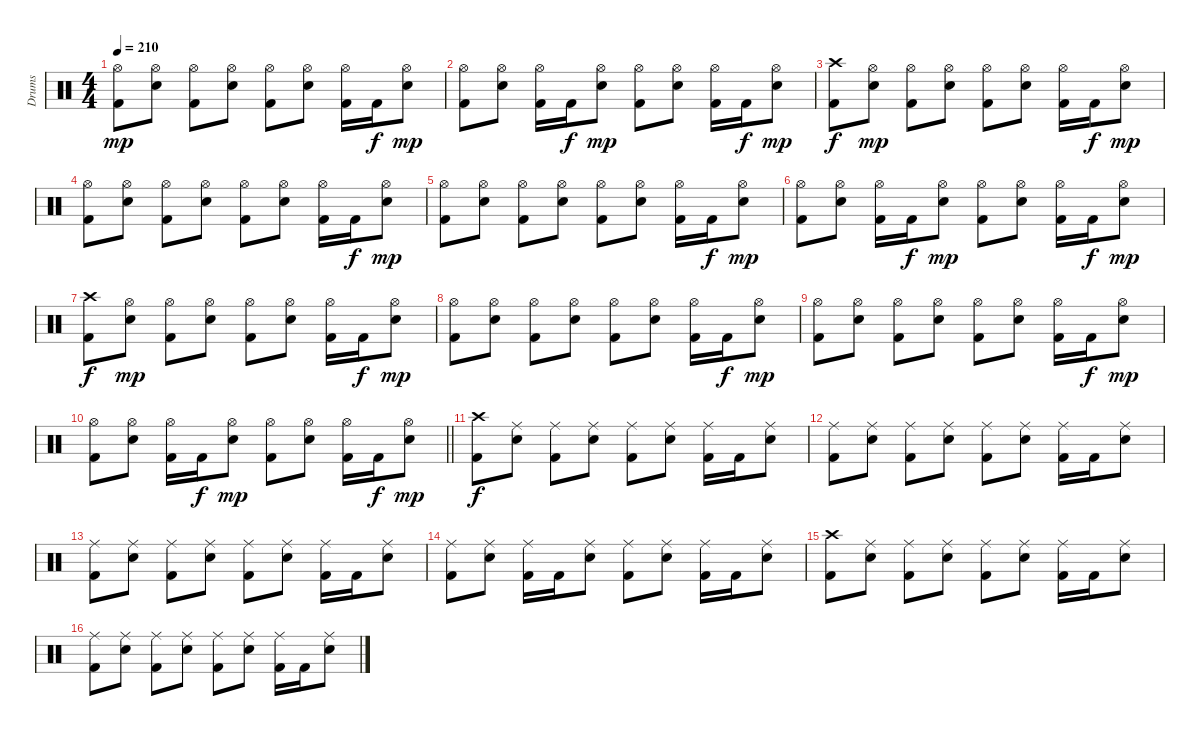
\track ("Drums" "Drums") {instrument percussion}
\staff {score}
\articulation defaults
\ts (4 4)
\tempo 210
\clef neutral
\ks c
("Hi-Hat (open)" "Kick (hit) 2").8{dy mp} ("Hi-Hat (open)" "Snare (hit) 2").8 ("Hi-Hat (open)" "Kick (hit) 2").8 ("Hi-Hat (open)" "Snare (hit) 2").8 ("Hi-Hat (open)" "Kick (hit) 2").8 ("Hi-Hat (open)" "Snare (hit) 2").8 ("Hi-Hat (open)" "Kick (hit) 2").16 "Kick (hit) 2".16{dy f} ("Hi-Hat (open)" "Snare (hit) 2").8{dy mp} |
("Hi-Hat (open)" "Kick (hit) 2").8 ("Hi-Hat (open)" "Snare (hit) 2").8 ("Hi-Hat (open)" "Kick (hit) 2").16 "Kick (hit) 2".16{dy f} ("Hi-Hat (open)" "Snare (hit) 2").8{dy mp} ("Hi-Hat (open)" "Kick (hit) 2").8 ("Hi-Hat (open)" "Snare (hit) 2").8 ("Hi-Hat (open)" "Kick (hit) 2").16 "Kick (hit) 2".16{dy f} ("Hi-Hat (open)" "Snare (hit) 2").8{dy mp} |
("Crash high (hit)" "Kick (hit) 2").8{dy f} ("Hi-Hat (open)" "Snare (hit) 2").8{dy mp} ("Hi-Hat (open)" "Kick (hit) 2").8 ("Hi-Hat (open)" "Snare (hit) 2").8 ("Hi-Hat (open)" "Kick (hit) 2").8 ("Hi-Hat (open)" "Snare (hit) 2").8 ("Hi-Hat (open)" "Kick (hit) 2").16 "Kick (hit) 2".16{dy f} ("Hi-Hat (open)" "Snare (hit) 2").8{dy mp} |
("Hi-Hat (open)" "Kick (hit) 2").8 ("Hi-Hat (open)" "Snare (hit) 2").8 ("Hi-Hat (open)" "Kick (hit) 2").8 ("Hi-Hat (open)" "Snare (hit) 2").8 ("Hi-Hat (open)" "Kick (hit) 2").8 ("Hi-Hat (open)" "Snare (hit) 2").8 ("Hi-Hat (open)" "Kick (hit) 2").16 "Kick (hit) 2".16{dy f} ("Hi-Hat (open)" "Snare (hit) 2").8{dy mp} |
("Hi-Hat (open)" "Kick (hit) 2").8 ("Hi-Hat (open)" "Snare (hit) 2").8 ("Hi-Hat (open)" "Kick (hit) 2").8 ("Hi-Hat (open)" "Snare (hit) 2").8 ("Hi-Hat (open)" "Kick (hit) 2").8 ("Hi-Hat (open)" "Snare (hit) 2").8 ("Hi-Hat (open)" "Kick (hit) 2").16 "Kick (hit) 2".16{dy f} ("Hi-Hat (open)" "Snare (hit) 2").8{dy mp} |
("Hi-Hat (open)" "Kick (hit) 2").8 ("Hi-Hat (open)" "Snare (hit) 2").8 ("Hi-Hat (open)" "Kick (hit) 2").16 "Kick (hit) 2".16{dy f} ("Hi-Hat (open)" "Snare (hit) 2").8{dy mp} ("Hi-Hat (open)" "Kick (hit) 2").8 ("Hi-Hat (open)" "Snare (hit) 2").8 ("Hi-Hat (open)" "Kick (hit) 2").16 "Kick (hit) 2".16{dy f} ("Hi-Hat (open)" "Snare (hit) 2").8{dy mp} |
("Crash high (hit)" "Kick (hit) 2").8{dy f} ("Hi-Hat (open)" "Snare (hit) 2").8{dy mp} ("Hi-Hat (open)" "Kick (hit) 2").8 ("Hi-Hat (open)" "Snare (hit) 2").8 ("Hi-Hat (open)" "Kick (hit) 2").8 ("Hi-Hat (open)" "Snare (hit) 2").8 ("Hi-Hat (open)" "Kick (hit) 2").16 "Kick (hit) 2".16{dy f} ("Hi-Hat (open)" "Snare (hit) 2").8{dy mp} |
("Hi-Hat (open)" "Kick (hit) 2").8 ("Hi-Hat (open)" "Snare (hit) 2").8 ("Hi-Hat (open)" "Kick (hit) 2").8 ("Hi-Hat (open)" "Snare (hit) 2").8 ("Hi-Hat (open)" "Kick (hit) 2").8 ("Hi-Hat (open)" "Snare (hit) 2").8 ("Hi-Hat (open)" "Kick (hit) 2").16 "Kick (hit) 2".16{dy f} ("Hi-Hat (open)" "Snare (hit) 2").8{dy mp} |
("Hi-Hat (open)" "Kick (hit) 2").8 ("Hi-Hat (open)" "Snare (hit) 2").8 ("Hi-Hat (open)" "Kick (hit) 2").8 ("Hi-Hat (open)" "Snare (hit) 2").8 ("Hi-Hat (open)" "Kick (hit) 2").8 ("Hi-Hat (open)" "Snare (hit) 2").8 ("Hi-Hat (open)" "Kick (hit) 2").16 "Kick (hit) 2".16{dy f} ("Hi-Hat (open)" "Snare (hit) 2").8{dy mp} |
\barLineRight lightlight
("Hi-Hat (open)" "Kick (hit) 2").8 ("Hi-Hat (open)" "Snare (hit) 2").8 ("Hi-Hat (open)" "Kick (hit) 2").16 "Kick (hit) 2".16{dy f} ("Hi-Hat (open)" "Snare (hit) 2").8{dy mp} ("Hi-Hat (open)" "Kick (hit) 2").8 ("Hi-Hat (open)" "Snare (hit) 2").8 ("Hi-Hat (open)" "Kick (hit) 2").16 "Kick (hit) 2".16{dy f} ("Hi-Hat (open)" "Snare (hit) 2").8{dy mp} |
\section ("" "")
("Crash high (hit)" "Kick (hit) 2").8{dy f} ("Ride (middle)" "Snare (hit) 2").8 ("Ride (middle)" "Kick (hit) 2").8 ("Ride (middle)" "Snare (hit) 2").8 ("Ride (middle)" "Kick (hit) 2").8 ("Ride (middle)" "Snare (hit) 2").8 ("Ride (middle)" "Kick (hit) 2").16 "Kick (hit) 2".16 ("Ride (middle)" "Snare (hit) 2").8 |
("Ride (middle)" "Kick (hit) 2").8 ("Ride (middle)" "Snare (hit) 2").8 ("Ride (middle)" "Kick (hit) 2").8 ("Ride (middle)" "Snare (hit) 2").8 ("Ride (middle)" "Kick (hit) 2").8 ("Ride (middle)" "Snare (hit) 2").8 ("Ride (middle)" "Kick (hit) 2").16 "Kick (hit) 2".16 ("Ride (middle)" "Snare (hit) 2").8 |
("Ride (middle)" "Kick (hit) 2").8 ("Ride (middle)" "Snare (hit) 2").8 ("Ride (middle)" "Kick (hit) 2").8 ("Ride (middle)" "Snare (hit) 2").8 ("Ride (middle)" "Kick (hit) 2").8 ("Ride (middle)" "Snare (hit) 2").8 ("Ride (middle)" "Kick (hit) 2").16 "Kick (hit) 2".16 ("Ride (middle)" "Snare (hit) 2").8 |
("Ride (middle)" "Kick (hit) 2").8 ("Ride (middle)" "Snare (hit) 2").8 ("Ride (middle)" "Kick (hit) 2").16 "Kick (hit) 2".16 ("Ride (middle)" "Snare (hit) 2").8 ("Ride (middle)" "Kick (hit) 2").8 ("Ride (middle)" "Snare (hit) 2").8 ("Ride (middle)" "Kick (hit) 2").16 "Kick (hit) 2".16 ("Ride (middle)" "Snare (hit) 2").8 |
("Crash high (hit)" "Kick (hit) 2").8 ("Ride (middle)" "Snare (hit) 2").8 ("Ride (middle)" "Kick (hit) 2").8 ("Ride (middle)" "Snare (hit) 2").8 ("Ride (middle)" "Kick (hit) 2").8 ("Ride (middle)" "Snare (hit) 2").8 ("Ride (middle)" "Kick (hit) 2").16 "Kick (hit) 2".16 ("Ride (middle)" "Snare (hit) 2").8 |
("Ride (middle)" "Kick (hit) 2").8 ("Ride (middle)" "Snare (hit) 2").8 ("Ride (middle)" "Kick (hit) 2").8 ("Ride (middle)" "Snare (hit) 2").8 ("Ride (middle)" "Kick (hit) 2").8 ("Ride (middle)" "Snare (hit) 2").8 ("Ride (middle)" "Kick (hit) 2").16 "Kick (hit) 2".16 ("Ride (middle)" "Snare (hit) 2").8
